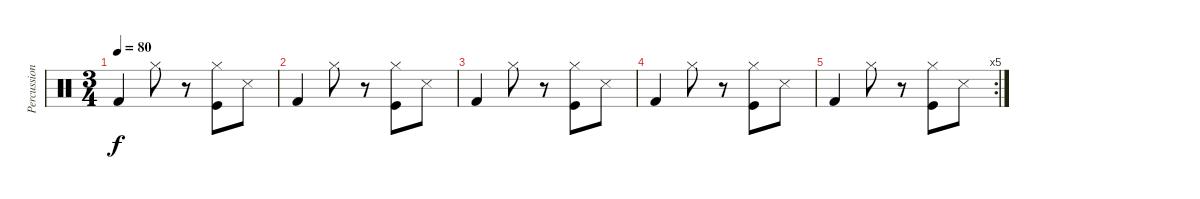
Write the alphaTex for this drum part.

\track ("Percussions" "Percussion") {instrument percussion}
\staff {score}
\articulation defaults
\ts (3 4)
\tempo 80
\clef neutral
\ks c "Kick (hit) 2".4{dy f} "Hi-Hat (closed)".8
r.8 ("Hi-Hat (closed)" "Kick (hit)").8 "Snare (side stick) 3".8 |
"Kick (hit) 2".4 "Hi-Hat (closed)".8 r.8 ("Hi-Hat (closed)" "Kick (hit)").8 "Snare (side stick) 3".8 |
"Kick (hit) 2".4 "Hi-Hat (closed)".8 r.8 ("Hi-Hat (closed)" "Kick (hit)").8 "Snare (side stick) 3".8 |
"Kick (hit) 2".4 "Hi-Hat (closed)".8 r.8 ("Hi-Hat (closed)" "Kick (hit)").8 "Snare (side stick) 3".8 |
\rc 5 "Kick (hit) 2".4 "Hi-Hat (closed)".8
r.8 ("Hi-Hat (closed)" "Kick (hit)").8 "Snare (side stick) 3".8
